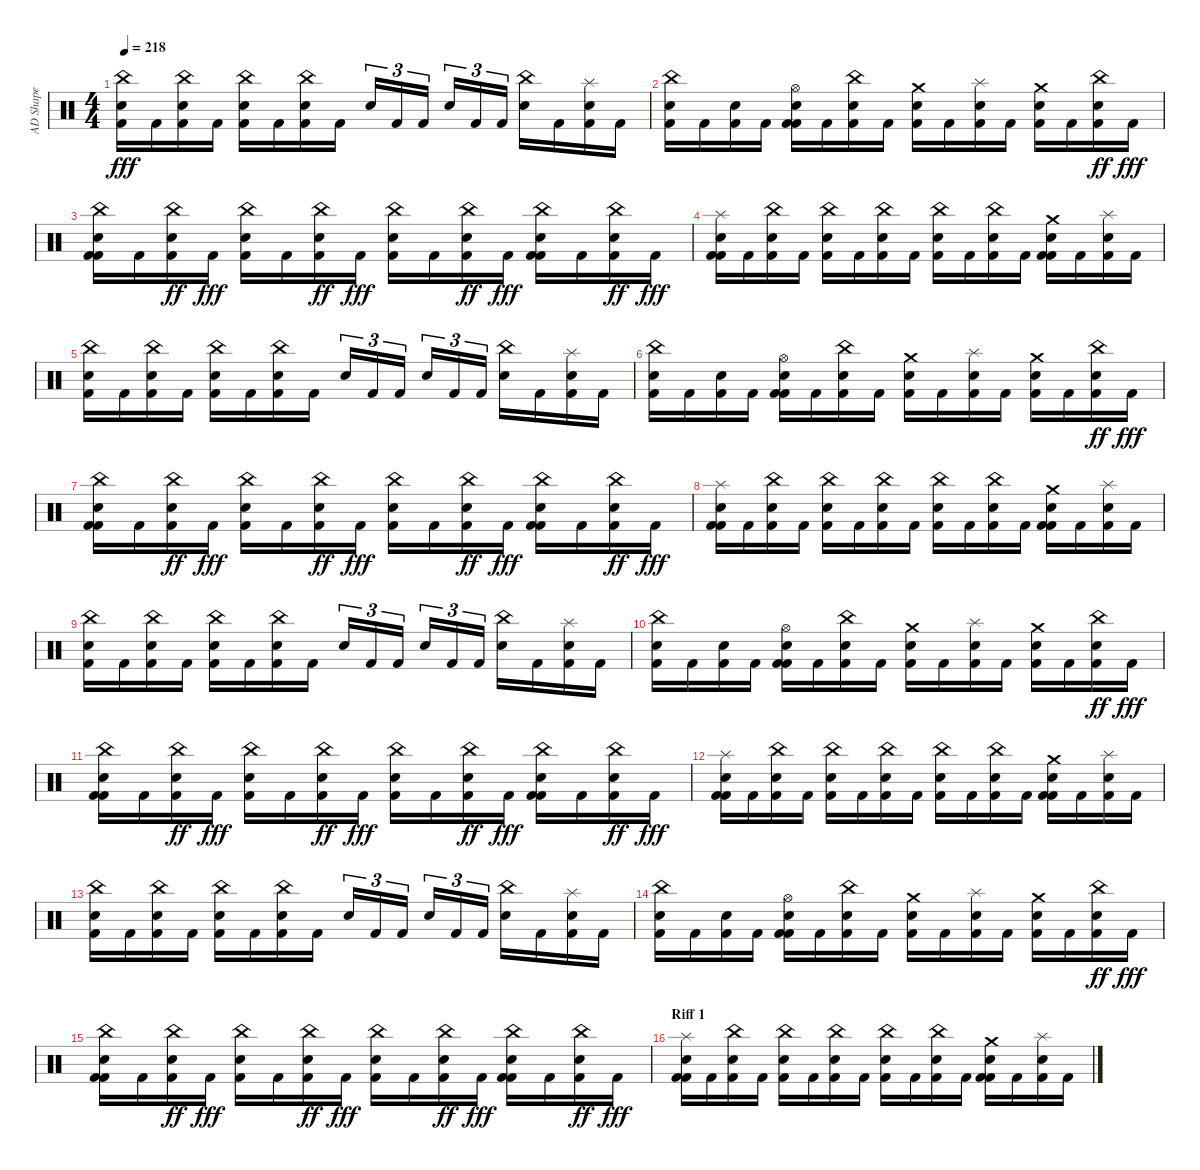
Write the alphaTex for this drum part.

\track ("AD Shape" "AD Shape") {instrument percussion}
\staff {score}
\articulation defaults
\ts (4 4)
\tempo 218
\clef neutral
\ks c
("Kick (hit) 2" "Snare (hit) 2" "China (hit)").16{dy fff} "Kick (hit) 2".16 ("Kick (hit) 2" "Snare (hit) 2" "China (hit)").16 "Kick (hit) 2".16 ("Kick (hit) 2" "Snare (hit) 2" "China (hit)").16 "Kick (hit) 2".16 ("Kick (hit) 2" "Snare (hit) 2" "China (hit)").16 "Kick (hit) 2".16 "Snare (hit) 2".16{tu (3 2)} "Kick (hit) 2".16{tu (3 2)} "Kick (hit) 2".16{tu (3 2)} "Snare (hit) 2".16{tu (3 2)} "Kick (hit) 2".16{tu (3 2)} "Kick (hit) 2".16{tu (3 2)} ("Snare (hit) 2" "China (hit)").16 "Kick (hit) 2".16 ("Kick (hit) 2" "Snare (hit) 2" "Splash (hit)").16 "Kick (hit) 2".16 |
("Kick (hit) 2" "Snare (hit) 2" "China (hit)").16 "Kick (hit) 2".16 ("Kick (hit) 2" "Snare (hit) 2").16 "Kick (hit) 2".16 ("Kick (hit) 2" "Kick (hit) 2" "Snare (hit) 2" "Hi-Hat (open)").16 "Kick (hit) 2".16 ("Kick (hit) 2" "Snare (hit) 2" "China (hit)").16 "Kick (hit) 2".16 ("Kick (hit) 2" "Snare (hit) 2" "Crash medium (hit)").16 "Kick (hit) 2".16 ("Kick (hit) 2" "Snare (hit) 2" "Splash (hit)").16 "Kick (hit) 2".16 ("Kick (hit) 2" "Snare (hit) 2" "Crash medium (hit)").16 "Kick (hit) 2".16 ("Kick (hit) 2" "Snare (hit) 2" "China (hit)").16{dy ff} "Kick (hit) 2".16{dy fff} |
("Kick (hit) 2" "Kick (hit) 2" "Snare (hit) 2" "China (hit)").16 "Kick (hit) 2".16 ("Kick (hit) 2" "Snare (hit) 2" "China (hit)").16{dy ff} "Kick (hit) 2".16{dy fff} ("Kick (hit) 2" "Snare (hit) 2" "China (hit)").16 "Kick (hit) 2".16 ("Kick (hit) 2" "Snare (hit) 2" "China (hit)").16{dy ff} "Kick (hit) 2".16{dy fff} ("Kick (hit) 2" "Snare (hit) 2" "China (hit)").16 "Kick (hit) 2".16 ("Kick (hit) 2" "Snare (hit) 2" "China (hit)").16{dy ff} "Kick (hit) 2".16{dy fff} ("Kick (hit) 2" "Kick (hit) 2" "Snare (hit) 2" "China (hit)").16 "Kick (hit) 2".16 ("Kick (hit) 2" "Snare (hit) 2" "China (hit)").16{dy ff} "Kick (hit) 2".16{dy fff} |
("Kick (hit) 2" "Kick (hit) 2" "Snare (hit) 2" "Splash (hit)").16 "Kick (hit) 2".16 ("Kick (hit) 2" "Snare (hit) 2" "China (hit)").16 "Kick (hit) 2".16 ("Kick (hit) 2" "Snare (hit) 2" "China (hit)").16 "Kick (hit) 2".16 ("Kick (hit) 2" "Snare (hit) 2" "China (hit)").16 "Kick (hit) 2".16 ("Kick (hit) 2" "Snare (hit) 2" "China (hit)").16 "Kick (hit) 2".16 ("Kick (hit) 2" "Snare (hit) 2" "China (hit)").16 "Kick (hit) 2".16 ("Kick (hit) 2" "Kick (hit) 2" "Snare (hit) 2" "Crash medium (hit)").16 "Kick (hit) 2".16 ("Kick (hit) 2" "Snare (hit) 2" "Splash (hit)").16 "Kick (hit) 2".16 |
("Kick (hit) 2" "Snare (hit) 2" "China (hit)").16 "Kick (hit) 2".16 ("Kick (hit) 2" "Snare (hit) 2" "China (hit)").16 "Kick (hit) 2".16 ("Kick (hit) 2" "Snare (hit) 2" "China (hit)").16 "Kick (hit) 2".16 ("Kick (hit) 2" "Snare (hit) 2" "China (hit)").16 "Kick (hit) 2".16 "Snare (hit) 2".16{tu (3 2)} "Kick (hit) 2".16{tu (3 2)} "Kick (hit) 2".16{tu (3 2)} "Snare (hit) 2".16{tu (3 2)} "Kick (hit) 2".16{tu (3 2)} "Kick (hit) 2".16{tu (3 2)} ("Snare (hit) 2" "China (hit)").16 "Kick (hit) 2".16 ("Kick (hit) 2" "Snare (hit) 2" "Splash (hit)").16 "Kick (hit) 2".16 |
("Kick (hit) 2" "Snare (hit) 2" "China (hit)").16 "Kick (hit) 2".16 ("Kick (hit) 2" "Snare (hit) 2").16 "Kick (hit) 2".16 ("Kick (hit) 2" "Kick (hit) 2" "Snare (hit) 2" "Hi-Hat (open)").16 "Kick (hit) 2".16 ("Kick (hit) 2" "Snare (hit) 2" "China (hit)").16 "Kick (hit) 2".16 ("Kick (hit) 2" "Snare (hit) 2" "Crash medium (hit)").16 "Kick (hit) 2".16 ("Kick (hit) 2" "Snare (hit) 2" "Splash (hit)").16 "Kick (hit) 2".16 ("Kick (hit) 2" "Snare (hit) 2" "Crash medium (hit)").16 "Kick (hit) 2".16 ("Kick (hit) 2" "Snare (hit) 2" "China (hit)").16{dy ff} "Kick (hit) 2".16{dy fff} |
("Kick (hit) 2" "Kick (hit) 2" "Snare (hit) 2" "China (hit)").16 "Kick (hit) 2".16 ("Kick (hit) 2" "Snare (hit) 2" "China (hit)").16{dy ff} "Kick (hit) 2".16{dy fff} ("Kick (hit) 2" "Snare (hit) 2" "China (hit)").16 "Kick (hit) 2".16 ("Kick (hit) 2" "Snare (hit) 2" "China (hit)").16{dy ff} "Kick (hit) 2".16{dy fff} ("Kick (hit) 2" "Snare (hit) 2" "China (hit)").16 "Kick (hit) 2".16 ("Kick (hit) 2" "Snare (hit) 2" "China (hit)").16{dy ff} "Kick (hit) 2".16{dy fff} ("Kick (hit) 2" "Kick (hit) 2" "Snare (hit) 2" "China (hit)").16 "Kick (hit) 2".16 ("Kick (hit) 2" "Snare (hit) 2" "China (hit)").16{dy ff} "Kick (hit) 2".16{dy fff} |
("Kick (hit) 2" "Kick (hit) 2" "Snare (hit) 2" "Splash (hit)").16 "Kick (hit) 2".16 ("Kick (hit) 2" "Snare (hit) 2" "China (hit)").16 "Kick (hit) 2".16 ("Kick (hit) 2" "Snare (hit) 2" "China (hit)").16 "Kick (hit) 2".16 ("Kick (hit) 2" "Snare (hit) 2" "China (hit)").16 "Kick (hit) 2".16 ("Kick (hit) 2" "Snare (hit) 2" "China (hit)").16 "Kick (hit) 2".16 ("Kick (hit) 2" "Snare (hit) 2" "China (hit)").16 "Kick (hit) 2".16 ("Kick (hit) 2" "Kick (hit) 2" "Snare (hit) 2" "Crash medium (hit)").16 "Kick (hit) 2".16 ("Kick (hit) 2" "Snare (hit) 2" "Splash (hit)").16 "Kick (hit) 2".16 |
("Kick (hit) 2" "Snare (hit) 2" "China (hit)").16 "Kick (hit) 2".16 ("Kick (hit) 2" "Snare (hit) 2" "China (hit)").16 "Kick (hit) 2".16 ("Kick (hit) 2" "Snare (hit) 2" "China (hit)").16 "Kick (hit) 2".16 ("Kick (hit) 2" "Snare (hit) 2" "China (hit)").16 "Kick (hit) 2".16 "Snare (hit) 2".16{tu (3 2)} "Kick (hit) 2".16{tu (3 2)} "Kick (hit) 2".16{tu (3 2)} "Snare (hit) 2".16{tu (3 2)} "Kick (hit) 2".16{tu (3 2)} "Kick (hit) 2".16{tu (3 2)} ("Snare (hit) 2" "China (hit)").16 "Kick (hit) 2".16 ("Kick (hit) 2" "Snare (hit) 2" "Splash (hit)").16 "Kick (hit) 2".16 |
("Kick (hit) 2" "Snare (hit) 2" "China (hit)").16 "Kick (hit) 2".16 ("Kick (hit) 2" "Snare (hit) 2").16 "Kick (hit) 2".16 ("Kick (hit) 2" "Kick (hit) 2" "Snare (hit) 2" "Hi-Hat (open)").16 "Kick (hit) 2".16 ("Kick (hit) 2" "Snare (hit) 2" "China (hit)").16 "Kick (hit) 2".16 ("Kick (hit) 2" "Snare (hit) 2" "Crash medium (hit)").16 "Kick (hit) 2".16 ("Kick (hit) 2" "Snare (hit) 2" "Splash (hit)").16 "Kick (hit) 2".16 ("Kick (hit) 2" "Snare (hit) 2" "Crash medium (hit)").16 "Kick (hit) 2".16 ("Kick (hit) 2" "Snare (hit) 2" "China (hit)").16{dy ff} "Kick (hit) 2".16{dy fff} |
("Kick (hit) 2" "Kick (hit) 2" "Snare (hit) 2" "China (hit)").16 "Kick (hit) 2".16 ("Kick (hit) 2" "Snare (hit) 2" "China (hit)").16{dy ff} "Kick (hit) 2".16{dy fff} ("Kick (hit) 2" "Snare (hit) 2" "China (hit)").16 "Kick (hit) 2".16 ("Kick (hit) 2" "Snare (hit) 2" "China (hit)").16{dy ff} "Kick (hit) 2".16{dy fff} ("Kick (hit) 2" "Snare (hit) 2" "China (hit)").16 "Kick (hit) 2".16 ("Kick (hit) 2" "Snare (hit) 2" "China (hit)").16{dy ff} "Kick (hit) 2".16{dy fff} ("Kick (hit) 2" "Kick (hit) 2" "Snare (hit) 2" "China (hit)").16 "Kick (hit) 2".16 ("Kick (hit) 2" "Snare (hit) 2" "China (hit)").16{dy ff} "Kick (hit) 2".16{dy fff} |
("Kick (hit) 2" "Kick (hit) 2" "Snare (hit) 2" "Splash (hit)").16 "Kick (hit) 2".16 ("Kick (hit) 2" "Snare (hit) 2" "China (hit)").16 "Kick (hit) 2".16 ("Kick (hit) 2" "Snare (hit) 2" "China (hit)").16 "Kick (hit) 2".16 ("Kick (hit) 2" "Snare (hit) 2" "China (hit)").16 "Kick (hit) 2".16 ("Kick (hit) 2" "Snare (hit) 2" "China (hit)").16 "Kick (hit) 2".16 ("Kick (hit) 2" "Snare (hit) 2" "China (hit)").16 "Kick (hit) 2".16 ("Kick (hit) 2" "Kick (hit) 2" "Snare (hit) 2" "Crash medium (hit)").16 "Kick (hit) 2".16 ("Kick (hit) 2" "Snare (hit) 2" "Splash (hit)").16 "Kick (hit) 2".16 |
("Kick (hit) 2" "Snare (hit) 2" "China (hit)").16 "Kick (hit) 2".16 ("Kick (hit) 2" "Snare (hit) 2" "China (hit)").16 "Kick (hit) 2".16 ("Kick (hit) 2" "Snare (hit) 2" "China (hit)").16 "Kick (hit) 2".16 ("Kick (hit) 2" "Snare (hit) 2" "China (hit)").16 "Kick (hit) 2".16 "Snare (hit) 2".16{tu (3 2)} "Kick (hit) 2".16{tu (3 2)} "Kick (hit) 2".16{tu (3 2)} "Snare (hit) 2".16{tu (3 2)} "Kick (hit) 2".16{tu (3 2)} "Kick (hit) 2".16{tu (3 2)} ("Snare (hit) 2" "China (hit)").16 "Kick (hit) 2".16 ("Kick (hit) 2" "Snare (hit) 2" "Splash (hit)").16 "Kick (hit) 2".16 |
("Kick (hit) 2" "Snare (hit) 2" "China (hit)").16 "Kick (hit) 2".16 ("Kick (hit) 2" "Snare (hit) 2").16 "Kick (hit) 2".16 ("Kick (hit) 2" "Kick (hit) 2" "Snare (hit) 2" "Hi-Hat (open)").16 "Kick (hit) 2".16 ("Kick (hit) 2" "Snare (hit) 2" "China (hit)").16 "Kick (hit) 2".16 ("Kick (hit) 2" "Snare (hit) 2" "Crash medium (hit)").16 "Kick (hit) 2".16 ("Kick (hit) 2" "Snare (hit) 2" "Splash (hit)").16 "Kick (hit) 2".16 ("Kick (hit) 2" "Snare (hit) 2" "Crash medium (hit)").16 "Kick (hit) 2".16 ("Kick (hit) 2" "Snare (hit) 2" "China (hit)").16{dy ff} "Kick (hit) 2".16{dy fff} |
("Kick (hit) 2" "Kick (hit) 2" "Snare (hit) 2" "China (hit)").16 "Kick (hit) 2".16 ("Kick (hit) 2" "Snare (hit) 2" "China (hit)").16{dy ff} "Kick (hit) 2".16{dy fff} ("Kick (hit) 2" "Snare (hit) 2" "China (hit)").16 "Kick (hit) 2".16 ("Kick (hit) 2" "Snare (hit) 2" "China (hit)").16{dy ff} "Kick (hit) 2".16{dy fff} ("Kick (hit) 2" "Snare (hit) 2" "China (hit)").16 "Kick (hit) 2".16 ("Kick (hit) 2" "Snare (hit) 2" "China (hit)").16{dy ff} "Kick (hit) 2".16{dy fff} ("Kick (hit) 2" "Kick (hit) 2" "Snare (hit) 2" "China (hit)").16 "Kick (hit) 2".16 ("Kick (hit) 2" "Snare (hit) 2" "China (hit)").16{dy ff} "Kick (hit) 2".16{dy fff} |
\section ("" "Riff 1")
("Kick (hit) 2" "Kick (hit) 2" "Snare (hit) 2" "Splash (hit)").16 "Kick (hit) 2".16 ("Kick (hit) 2" "Snare (hit) 2" "China (hit)").16 "Kick (hit) 2".16 ("Kick (hit) 2" "Snare (hit) 2" "China (hit)").16 "Kick (hit) 2".16 ("Kick (hit) 2" "Snare (hit) 2" "China (hit)").16 "Kick (hit) 2".16 ("Kick (hit) 2" "Snare (hit) 2" "China (hit)").16 "Kick (hit) 2".16 ("Kick (hit) 2" "Snare (hit) 2" "China (hit)").16 "Kick (hit) 2".16 ("Kick (hit) 2" "Kick (hit) 2" "Snare (hit) 2" "Crash medium (hit)").16 "Kick (hit) 2".16 ("Kick (hit) 2" "Snare (hit) 2" "Splash (hit)").16 "Kick (hit) 2".16
